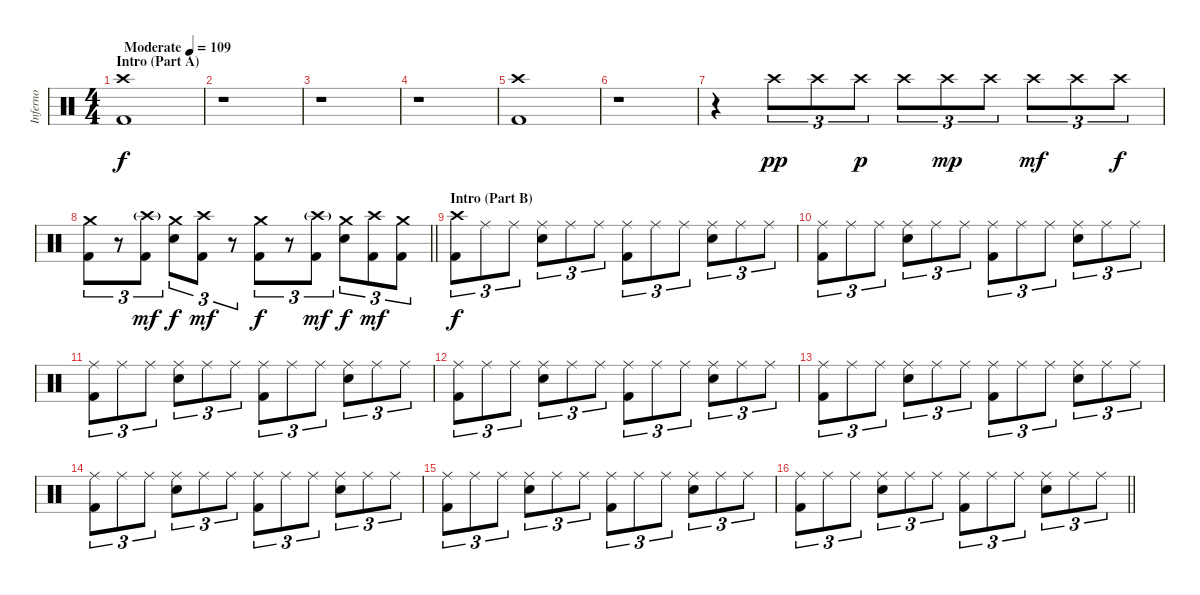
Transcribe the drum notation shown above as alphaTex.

\track ("Inferno" "Inferno") {instrument percussion}
\staff {score}
\articulation defaults
\ts (4 4)
\section ("" "Intro (Part A)")
\tempo (109 "Moderate")
\clef neutral
\ks c
("Crash high (hit)" "Kick (hit) 2").1{dy f} |
r.1 |
r.1 |
r.1 |
("Crash high (hit)" "Kick (hit) 2").1 |
r.1 |
r.4 "Crash high (hit)".8{tu (3 2) dy pp} "Crash high (hit)".8{tu (3 2)} "Crash high (hit)".8{tu (3 2) dy p} "Crash high (hit)".8{tu (3 2)} "Crash high (hit)".8{tu (3 2) dy mp} "Crash high (hit)".8{tu (3 2)} "Crash high (hit)".8{tu (3 2) dy mf} "Crash high (hit)".8{tu (3 2)} "Crash high (hit)".8{tu (3 2) dy f} |
\barLineRight lightlight
("Crash medium (hit)" "Kick (hit) 2").8{tu (3 2)} r.8{tu (3 2)} ("Crash high (hit)"{g} "Kick (hit) 2").8{tu (3 2) dy mf} ("Crash medium (hit)" "Snare (hit) 2").8{tu (3 2) dy f} ("Crash high (hit)" "Kick (hit) 2").8{tu (3 2) dy mf} r.8{tu (3 2)} ("Crash medium (hit)" "Kick (hit) 2").8{tu (3 2) dy f} r.8{tu (3 2)} ("Crash high (hit)"{g} "Kick (hit) 2").8{tu (3 2) dy mf} ("Crash medium (hit)" "Snare (hit) 2").8{tu (3 2) dy f} ("Crash high (hit)" "Kick (hit) 2").8{tu (3 2) dy mf} ("Crash medium (hit)" "Kick (hit) 2").8{tu (3 2)} |
\section ("" "Intro (Part B)")
("Crash high (hit)" "Kick (hit) 2").8{tu (3 2) dy f} "Ride (middle)".8{tu (3 2)} "Ride (middle)".8{tu (3 2)} ("Ride (middle)" "Snare (hit) 2").8{tu (3 2)} "Ride (middle)".8{tu (3 2)} "Ride (middle)".8{tu (3 2)} ("Ride (middle)" "Kick (hit) 2").8{tu (3 2)} "Ride (middle)".8{tu (3 2)} "Ride (middle)".8{tu (3 2)} ("Ride (middle)" "Snare (hit) 2").8{tu (3 2)} "Ride (middle)".8{tu (3 2)} "Ride (middle)".8{tu (3 2)} |
("Ride (middle)" "Kick (hit) 2").8{tu (3 2)} "Ride (middle)".8{tu (3 2)} "Ride (middle)".8{tu (3 2)} ("Ride (middle)" "Snare (hit) 2").8{tu (3 2)} "Ride (middle)".8{tu (3 2)} "Ride (middle)".8{tu (3 2)} ("Ride (middle)" "Kick (hit) 2").8{tu (3 2)} "Ride (middle)".8{tu (3 2)} "Ride (middle)".8{tu (3 2)} ("Ride (middle)" "Snare (hit) 2").8{tu (3 2)} "Ride (middle)".8{tu (3 2)} "Ride (middle)".8{tu (3 2)} |
("Ride (middle)" "Kick (hit) 2").8{tu (3 2)} "Ride (middle)".8{tu (3 2)} "Ride (middle)".8{tu (3 2)} ("Ride (middle)" "Snare (hit) 2").8{tu (3 2)} "Ride (middle)".8{tu (3 2)} "Ride (middle)".8{tu (3 2)} ("Ride (middle)" "Kick (hit) 2").8{tu (3 2)} "Ride (middle)".8{tu (3 2)} "Ride (middle)".8{tu (3 2)} ("Ride (middle)" "Snare (hit) 2").8{tu (3 2)} "Ride (middle)".8{tu (3 2)} "Ride (middle)".8{tu (3 2)} |
("Ride (middle)" "Kick (hit) 2").8{tu (3 2)} "Ride (middle)".8{tu (3 2)} "Ride (middle)".8{tu (3 2)} ("Ride (middle)" "Snare (hit) 2").8{tu (3 2)} "Ride (middle)".8{tu (3 2)} "Ride (middle)".8{tu (3 2)} ("Ride (middle)" "Kick (hit) 2").8{tu (3 2)} "Ride (middle)".8{tu (3 2)} "Ride (middle)".8{tu (3 2)} ("Ride (middle)" "Snare (hit) 2").8{tu (3 2)} "Ride (middle)".8{tu (3 2)} "Ride (middle)".8{tu (3 2)} |
("Ride (middle)" "Kick (hit) 2").8{tu (3 2)} "Ride (middle)".8{tu (3 2)} "Ride (middle)".8{tu (3 2)} ("Ride (middle)" "Snare (hit) 2").8{tu (3 2)} "Ride (middle)".8{tu (3 2)} "Ride (middle)".8{tu (3 2)} ("Ride (middle)" "Kick (hit) 2").8{tu (3 2)} "Ride (middle)".8{tu (3 2)} "Ride (middle)".8{tu (3 2)} ("Ride (middle)" "Snare (hit) 2").8{tu (3 2)} "Ride (middle)".8{tu (3 2)} "Ride (middle)".8{tu (3 2)} |
("Ride (middle)" "Kick (hit) 2").8{tu (3 2)} "Ride (middle)".8{tu (3 2)} "Ride (middle)".8{tu (3 2)} ("Ride (middle)" "Snare (hit) 2").8{tu (3 2)} "Ride (middle)".8{tu (3 2)} "Ride (middle)".8{tu (3 2)} ("Ride (middle)" "Kick (hit) 2").8{tu (3 2)} "Ride (middle)".8{tu (3 2)} "Ride (middle)".8{tu (3 2)} ("Ride (middle)" "Snare (hit) 2").8{tu (3 2)} "Ride (middle)".8{tu (3 2)} "Ride (middle)".8{tu (3 2)} |
("Ride (middle)" "Kick (hit) 2").8{tu (3 2)} "Ride (middle)".8{tu (3 2)} "Ride (middle)".8{tu (3 2)} ("Ride (middle)" "Snare (hit) 2").8{tu (3 2)} "Ride (middle)".8{tu (3 2)} "Ride (middle)".8{tu (3 2)} ("Ride (middle)" "Kick (hit) 2").8{tu (3 2)} "Ride (middle)".8{tu (3 2)} "Ride (middle)".8{tu (3 2)} ("Ride (middle)" "Snare (hit) 2").8{tu (3 2)} "Ride (middle)".8{tu (3 2)} "Ride (middle)".8{tu (3 2)} |
\barLineRight lightlight
("Ride (middle)" "Kick (hit) 2").8{tu (3 2)} "Ride (middle)".8{tu (3 2)} "Ride (middle)".8{tu (3 2)} ("Ride (middle)" "Snare (hit) 2").8{tu (3 2)} "Ride (middle)".8{tu (3 2)} "Ride (middle)".8{tu (3 2)} ("Ride (middle)" "Kick (hit) 2").8{tu (3 2)} "Ride (middle)".8{tu (3 2)} "Ride (middle)".8{tu (3 2)} ("Ride (middle)" "Snare (hit) 2").8{tu (3 2)} "Ride (middle)".8{tu (3 2)} "Ride (middle)".8{tu (3 2)}
